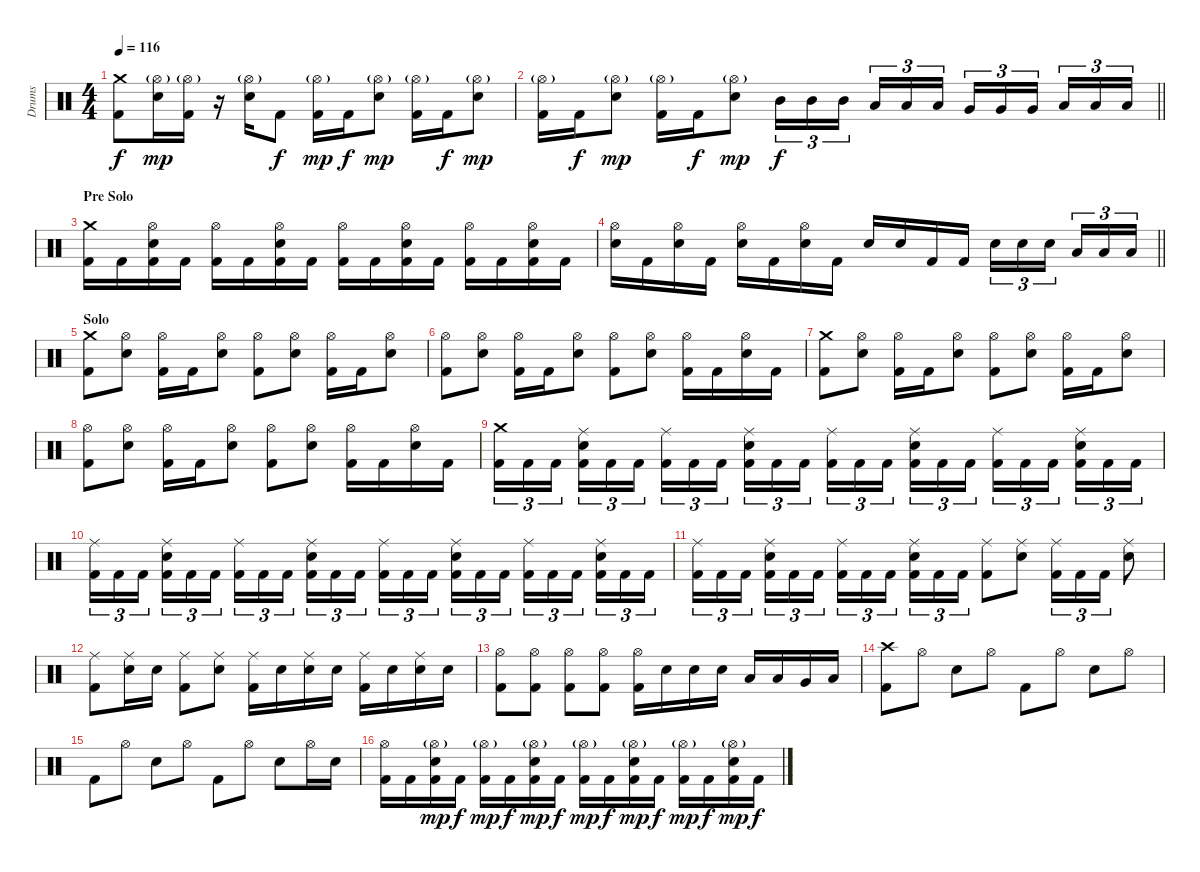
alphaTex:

\track ("Drums" "Drums") {instrument percussion}
\staff {score}
\articulation defaults
\ts (4 4)
\tempo 116
\clef neutral
\ks c
("Crash medium (hit)" "Kick (hit) 2").8{dy f} ("Hi-Hat (open)"{g} "Electric Snare (hit)").16{dy mp} ("Hi-Hat (open)"{g} "Kick (hit) 2").16 r.16 ("Hi-Hat (open)"{g} "Electric Snare (hit)").16 "Kick (hit) 2".8{dy f} ("Hi-Hat (open)"{g} "Kick (hit) 2").16{dy mp} "Kick (hit) 2".16{dy f} ("Hi-Hat (open)"{g} "Electric Snare (hit)").8{dy mp} ("Hi-Hat (open)"{g} "Kick (hit) 2").16 "Kick (hit) 2".16{dy f} ("Hi-Hat (open)"{g} "Electric Snare (hit)").8{dy mp} |
\barLineRight lightlight
("Hi-Hat (open)"{g} "Kick (hit) 2").16 "Kick (hit) 2".16{dy f} ("Hi-Hat (open)"{g} "Electric Snare (hit)").8{dy mp} ("Hi-Hat (open)"{g} "Kick (hit) 2").16 "Kick (hit) 2".16{dy f} ("Hi-Hat (open)"{g} "Electric Snare (hit)").8{dy mp} "Mid Tom (hit)".16{tu (3 2) dy f} "Mid Tom (hit)".16{tu (3 2)} "Mid Tom (hit)".16{tu (3 2) beam splitsecondary} "Low Tom (hit)".16{tu (3 2)} "Low Tom (hit)".16{tu (3 2)} "Low Tom (hit)".16{tu (3 2)} "Very Low Tom (hit)".16{tu (3 2)} "Very Low Tom (hit)".16{tu (3 2)} "Very Low Tom (hit)".16{tu (3 2) beam splitsecondary} "Low Floor Tom (hit)".16{tu (3 2)} "Low Floor Tom (hit)".16{tu (3 2)} "Low Floor Tom (hit)".16{tu (3 2)} |
\section ("" "Pre Solo")
("Crash medium (hit)" "Kick (hit) 2").16 "Kick (hit) 2".16 ("Hi-Hat (open)" "Kick (hit) 2" "Electric Snare (hit)").16 "Kick (hit) 2".16 ("Hi-Hat (open)" "Kick (hit) 2").16 "Kick (hit) 2".16 ("Hi-Hat (open)" "Kick (hit) 2" "Electric Snare (hit)").16 "Kick (hit) 2".16 ("Hi-Hat (open)" "Kick (hit) 2").16 "Kick (hit) 2".16 ("Hi-Hat (open)" "Kick (hit) 2" "Electric Snare (hit)").16 "Kick (hit) 2".16 ("Hi-Hat (open)" "Kick (hit) 2").16 "Kick (hit) 2".16 ("Hi-Hat (open)" "Kick (hit) 2" "Electric Snare (hit)").16 "Kick (hit) 2".16 |
\barLineRight lightlight
("Hi-Hat (open)" "Electric Snare (hit)").16 "Kick (hit) 2".16 ("Hi-Hat (open)" "Electric Snare (hit)").16 "Kick (hit) 2".16 ("Hi-Hat (open)" "Electric Snare (hit)").16 "Kick (hit) 2".16 ("Hi-Hat (open)" "Electric Snare (hit)").16 "Kick (hit) 2".16 "Electric Snare (hit)".16 "Electric Snare (hit)".16 "Kick (hit) 2".16 "Kick (hit) 2".16 "Electric Snare (hit)".16{tu (3 2)} "Electric Snare (hit)".16{tu (3 2)} "Electric Snare (hit)".16{tu (3 2) beam splitsecondary} "Low Floor Tom (hit)".16{tu (3 2)} "Low Floor Tom (hit)".16{tu (3 2)} "Low Floor Tom (hit)".16{tu (3 2)} |
\section ("" "Solo")
("Crash medium (hit)" "Kick (hit) 2").8 ("Hi-Hat (open)" "Electric Snare (hit)").8 ("Hi-Hat (open)" "Kick (hit) 2").16 "Kick (hit) 2".16 ("Hi-Hat (open)" "Electric Snare (hit)").8 ("Hi-Hat (open)" "Kick (hit) 2").8 ("Hi-Hat (open)" "Electric Snare (hit)").8 ("Hi-Hat (open)" "Kick (hit) 2").16 "Kick (hit) 2".16 ("Hi-Hat (open)" "Electric Snare (hit)").8 |
("Hi-Hat (open)" "Kick (hit) 2").8 ("Hi-Hat (open)" "Electric Snare (hit)").8 ("Hi-Hat (open)" "Kick (hit) 2").16 "Kick (hit) 2".16 ("Hi-Hat (open)" "Electric Snare (hit)").8 ("Hi-Hat (open)" "Kick (hit) 2").8 ("Hi-Hat (open)" "Electric Snare (hit)").8 ("Hi-Hat (open)" "Kick (hit) 2").16 "Kick (hit) 2".16 ("Hi-Hat (open)" "Electric Snare (hit)").16 "Kick (hit) 2".16 |
("Crash medium (hit)" "Kick (hit) 2").8 ("Hi-Hat (open)" "Electric Snare (hit)").8 ("Hi-Hat (open)" "Kick (hit) 2").16 "Kick (hit) 2".16 ("Hi-Hat (open)" "Electric Snare (hit)").8 ("Hi-Hat (open)" "Kick (hit) 2").8 ("Hi-Hat (open)" "Electric Snare (hit)").8 ("Hi-Hat (open)" "Kick (hit) 2").16 "Kick (hit) 2".16 ("Hi-Hat (open)" "Electric Snare (hit)").8 |
("Hi-Hat (open)" "Kick (hit) 2").8 ("Hi-Hat (open)" "Electric Snare (hit)").8 ("Hi-Hat (open)" "Kick (hit) 2").16 "Kick (hit) 2".16 ("Hi-Hat (open)" "Electric Snare (hit)").8 ("Hi-Hat (open)" "Kick (hit) 2").8 ("Hi-Hat (open)" "Electric Snare (hit)").8 ("Hi-Hat (open)" "Kick (hit) 2").16 "Kick (hit) 2".16 ("Hi-Hat (open)" "Electric Snare (hit)").16 "Kick (hit) 2".16 |
("Crash medium (hit)" "Kick (hit) 2").16{tu (3 2)} "Kick (hit) 2".16{tu (3 2)} "Kick (hit) 2".16{tu (3 2) beam splitsecondary} ("Ride (middle)" "Kick (hit) 2" "Electric Snare (hit)").16{tu (3 2)} "Kick (hit) 2".16{tu (3 2)} "Kick (hit) 2".16{tu (3 2)} ("Ride (middle)" "Kick (hit) 2").16{tu (3 2)} "Kick (hit) 2".16{tu (3 2)} "Kick (hit) 2".16{tu (3 2) beam splitsecondary} ("Ride (middle)" "Kick (hit) 2" "Electric Snare (hit)").16{tu (3 2)} "Kick (hit) 2".16{tu (3 2)} "Kick (hit) 2".16{tu (3 2)} ("Ride (middle)" "Kick (hit) 2").16{tu (3 2)} "Kick (hit) 2".16{tu (3 2)} "Kick (hit) 2".16{tu (3 2) beam splitsecondary} ("Ride (middle)" "Kick (hit) 2" "Electric Snare (hit)").16{tu (3 2)} "Kick (hit) 2".16{tu (3 2)} "Kick (hit) 2".16{tu (3 2)} ("Ride (middle)" "Kick (hit) 2").16{tu (3 2)} "Kick (hit) 2".16{tu (3 2)} "Kick (hit) 2".16{tu (3 2) beam splitsecondary} ("Ride (middle)" "Kick (hit) 2" "Electric Snare (hit)").16{tu (3 2)} "Kick (hit) 2".16{tu (3 2)} "Kick (hit) 2".16{tu (3 2)} |
("Ride (middle)" "Kick (hit) 2").16{tu (3 2)} "Kick (hit) 2".16{tu (3 2)} "Kick (hit) 2".16{tu (3 2) beam splitsecondary} ("Ride (middle)" "Kick (hit) 2" "Electric Snare (hit)").16{tu (3 2)} "Kick (hit) 2".16{tu (3 2)} "Kick (hit) 2".16{tu (3 2)} ("Ride (middle)" "Kick (hit) 2").16{tu (3 2)} "Kick (hit) 2".16{tu (3 2)} "Kick (hit) 2".16{tu (3 2) beam splitsecondary} ("Ride (middle)" "Kick (hit) 2" "Electric Snare (hit)").16{tu (3 2)} "Kick (hit) 2".16{tu (3 2)} "Kick (hit) 2".16{tu (3 2)} ("Ride (middle)" "Kick (hit) 2").16{tu (3 2)} "Kick (hit) 2".16{tu (3 2)} "Kick (hit) 2".16{tu (3 2) beam splitsecondary} ("Ride (middle)" "Kick (hit) 2" "Electric Snare (hit)").16{tu (3 2)} "Kick (hit) 2".16{tu (3 2)} "Kick (hit) 2".16{tu (3 2)} ("Ride (middle)" "Kick (hit) 2").16{tu (3 2)} "Kick (hit) 2".16{tu (3 2)} "Kick (hit) 2".16{tu (3 2) beam splitsecondary} ("Ride (middle)" "Kick (hit) 2" "Electric Snare (hit)").16{tu (3 2)} "Kick (hit) 2".16{tu (3 2)} "Kick (hit) 2".16{tu (3 2)} |
("Ride (middle)" "Kick (hit) 2").16{tu (3 2)} "Kick (hit) 2".16{tu (3 2)} "Kick (hit) 2".16{tu (3 2) beam splitsecondary} ("Ride (middle)" "Kick (hit) 2" "Electric Snare (hit)").16{tu (3 2)} "Kick (hit) 2".16{tu (3 2)} "Kick (hit) 2".16{tu (3 2)} ("Ride (middle)" "Kick (hit) 2").16{tu (3 2)} "Kick (hit) 2".16{tu (3 2)} "Kick (hit) 2".16{tu (3 2) beam splitsecondary} ("Ride (middle)" "Kick (hit) 2" "Electric Snare (hit)").16{tu (3 2)} "Kick (hit) 2".16{tu (3 2)} "Kick (hit) 2".16{tu (3 2)} ("Ride (middle)" "Kick (hit) 2").8 ("Ride (middle)" "Electric Snare (hit)").8 ("Ride (middle)" "Kick (hit) 2").16{tu (3 2)} "Kick (hit) 2".16{tu (3 2)} "Kick (hit) 2".16{tu (3 2)} ("Ride (middle)" "Electric Snare (hit)").8 |
("Ride (middle)" "Kick (hit) 2").8 ("Ride (middle)" "Electric Snare (hit)").16 "Electric Snare (hit)".16 ("Ride (middle)" "Kick (hit) 2").8 ("Ride (middle)" "Electric Snare (hit)").8 ("Ride (middle)" "Kick (hit) 2").16 "Electric Snare (hit)".16 ("Ride (middle)" "Electric Snare (hit)").16 "Electric Snare (hit)".16 ("Ride (middle)" "Kick (hit) 2").16 "Electric Snare (hit)".16 ("Ride (middle)" "Electric Snare (hit)").16 "Electric Snare (hit)".16 |
("Hi-Hat (open)" "Kick (hit) 2").8 ("Hi-Hat (open)" "Kick (hit) 2").8 ("Hi-Hat (open)" "Kick (hit) 2").8 ("Hi-Hat (open)" "Kick (hit) 2").8 ("Hi-Hat (open)" "Kick (hit) 2").16 "Electric Snare (hit)".16 "Electric Snare (hit)".16 "Electric Snare (hit)".16 "Low Tom (hit)".16 "Low Tom (hit)".16 "Very Low Tom (hit)".16 "Low Floor Tom (hit)".16 |
("Crash high (hit)" "Kick (hit) 2").8 "Hi-Hat (open)".8 "Electric Snare (hit)".8 "Hi-Hat (open)".8 "Kick (hit) 2".8 "Hi-Hat (open)".8 "Electric Snare (hit)".8 "Hi-Hat (open)".8 |
"Kick (hit) 2".8 "Hi-Hat (open)".8 "Electric Snare (hit)".8 "Hi-Hat (open)".8 "Kick (hit) 2".8 "Hi-Hat (open)".8 "Electric Snare (hit)".8 "Hi-Hat (open)".16 "Electric Snare (hit)".16 |
("Hi-Hat (open)" "Kick (hit) 2").16 "Kick (hit) 2".16 ("Hi-Hat (open)"{g} "Kick (hit) 2" "Electric Snare (hit)").16{dy mp} "Kick (hit) 2".16{dy f} ("Hi-Hat (open)"{g} "Kick (hit) 2").16{dy mp} "Kick (hit) 2".16{dy f} ("Hi-Hat (open)"{g} "Kick (hit) 2" "Electric Snare (hit)").16{dy mp} "Kick (hit) 2".16{dy f} ("Hi-Hat (open)"{g} "Kick (hit) 2").16{dy mp} "Kick (hit) 2".16{dy f} ("Hi-Hat (open)"{g} "Kick (hit) 2" "Electric Snare (hit)").16{dy mp} "Kick (hit) 2".16{dy f} ("Hi-Hat (open)"{g} "Kick (hit) 2").16{dy mp} "Kick (hit) 2".16{dy f} ("Hi-Hat (open)"{g} "Kick (hit) 2" "Electric Snare (hit)").16{dy mp} "Kick (hit) 2".16{dy f}
